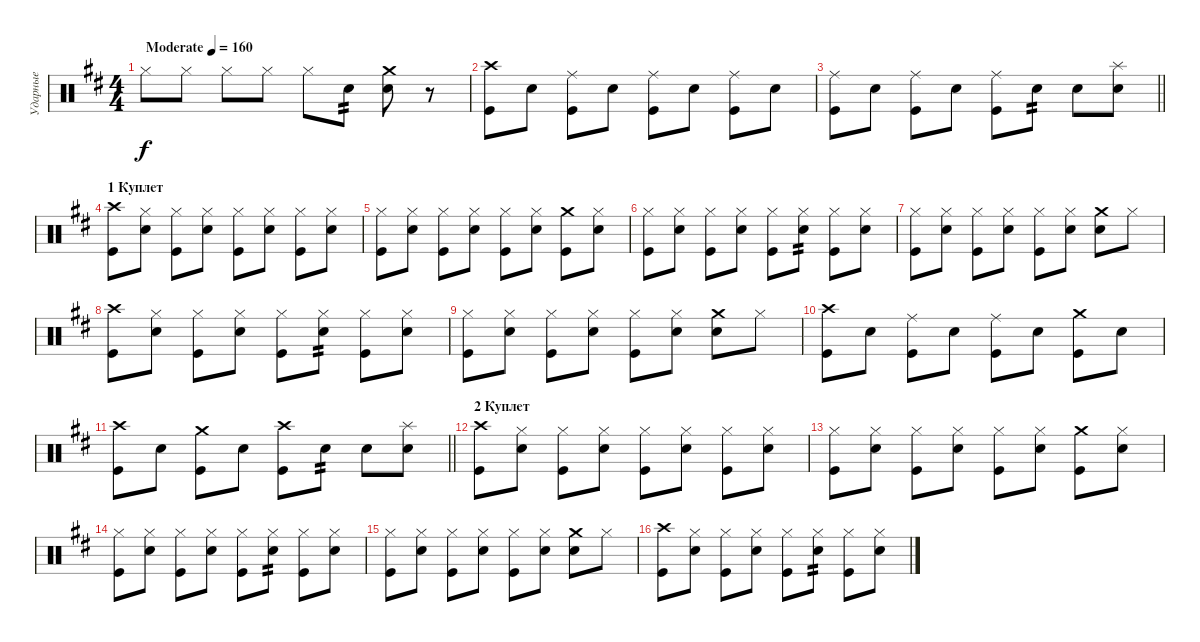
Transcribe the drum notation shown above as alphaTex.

\track ("Ударные" "Ударные") {instrument percussion}
\staff {score}
\articulation defaults
\ts (4 4)
\tempo (160 "Moderate")
\clef neutral
\ks d "Hi-Hat (closed)".8{dy f} "Hi-Hat (closed)".8 "Hi-Hat (closed)".8 "Hi-Hat (closed)".8 "Hi-Hat (closed)".8 "Electric Snare (hit)".8{tp 2}
("Crash medium (hit)" "Electric Snare (hit)").8 r.8 |
("Crash high (hit)" "Kick (hit)").8 "Electric Snare (hit)".8 ("Ride (middle)" "Kick (hit)").8 "Electric Snare (hit)".8 ("Ride (middle)" "Kick (hit)").8 "Electric Snare (hit)".8 ("Ride (middle)" "Kick (hit)").8 "Electric Snare (hit)".8 |
\barLineRight lightlight
("Ride (middle)" "Kick (hit)").8 "Electric Snare (hit)".8 ("Ride (middle)" "Kick (hit)").8 "Electric Snare (hit)".8 ("Ride (middle)" "Kick (hit)").8 "Electric Snare (hit)".8{tp 2} "Electric Snare (hit)".8 ("Splash (hit)" "Electric Snare (hit)").8 |
\section ("" "1 Куплет")
("Crash high (hit)" "Kick (hit)").8 ("Hi-Hat (closed)" "Electric Snare (hit)").8 ("Hi-Hat (closed)" "Kick (hit)").8 ("Hi-Hat (closed)" "Electric Snare (hit)").8 ("Hi-Hat (closed)" "Kick (hit)").8 ("Hi-Hat (closed)" "Electric Snare (hit)").8 ("Hi-Hat (closed)" "Kick (hit)").8 ("Hi-Hat (closed)" "Electric Snare (hit)").8 |
("Hi-Hat (closed)" "Kick (hit)").8 ("Hi-Hat (closed)" "Electric Snare (hit)").8 ("Hi-Hat (closed)" "Kick (hit)").8 ("Hi-Hat (closed)" "Electric Snare (hit)").8 ("Hi-Hat (closed)" "Kick (hit)").8 ("Hi-Hat (closed)" "Electric Snare (hit)").8 ("Crash medium (hit)" "Kick (hit)").8 ("Hi-Hat (closed)" "Electric Snare (hit)").8 |
("Hi-Hat (closed)" "Kick (hit)").8 ("Hi-Hat (closed)" "Electric Snare (hit)").8 ("Hi-Hat (closed)" "Kick (hit)").8 ("Hi-Hat (closed)" "Electric Snare (hit)").8 ("Hi-Hat (closed)" "Kick (hit)").8 ("Hi-Hat (closed)" "Electric Snare (hit)").8{tp 2} ("Hi-Hat (closed)" "Kick (hit)").8 ("Hi-Hat (closed)" "Electric Snare (hit)").8 |
("Hi-Hat (closed)" "Kick (hit)").8 ("Hi-Hat (closed)" "Electric Snare (hit)").8 ("Hi-Hat (closed)" "Kick (hit)").8 ("Hi-Hat (closed)" "Electric Snare (hit)").8 ("Hi-Hat (closed)" "Kick (hit)").8 ("Hi-Hat (closed)" "Electric Snare (hit)").8 ("Crash medium (hit)" "Electric Snare (hit)").8 "Hi-Hat (closed)".8 |
("Crash high (hit)" "Kick (hit)").8 ("Hi-Hat (closed)" "Electric Snare (hit)").8 ("Hi-Hat (closed)" "Kick (hit)").8 ("Hi-Hat (closed)" "Electric Snare (hit)").8 ("Hi-Hat (closed)" "Kick (hit)").8 ("Hi-Hat (closed)" "Electric Snare (hit)").8{tp 2} ("Hi-Hat (closed)" "Kick (hit)").8 ("Hi-Hat (closed)" "Electric Snare (hit)").8 |
("Hi-Hat (closed)" "Kick (hit)").8 ("Hi-Hat (closed)" "Electric Snare (hit)").8 ("Hi-Hat (closed)" "Kick (hit)").8 ("Hi-Hat (closed)" "Electric Snare (hit)").8 ("Hi-Hat (closed)" "Kick (hit)").8 ("Hi-Hat (closed)" "Electric Snare (hit)").8 ("Crash medium (hit)" "Electric Snare (hit)").8 "Hi-Hat (closed)".8 |
("Crash high (hit)" "Kick (hit)").8 "Electric Snare (hit)".8 ("Ride (middle)" "Kick (hit)").8 "Electric Snare (hit)".8 ("Ride (middle)" "Kick (hit)").8 "Electric Snare (hit)".8 ("Crash medium (hit)" "Kick (hit)").8 "Electric Snare (hit)".8 |
\barLineRight lightlight
("Crash high (hit)" "Kick (hit)").8 "Electric Snare (hit)".8 ("Crash medium (hit)" "Kick (hit)").8 "Electric Snare (hit)".8 ("Crash high (hit)" "Kick (hit)").8 "Electric Snare (hit)".8{tp 2} "Electric Snare (hit)".8 ("Splash (hit)" "Electric Snare (hit)").8 |
\section ("" "2 Куплет")
("Crash high (hit)" "Kick (hit)").8 ("Hi-Hat (closed)" "Electric Snare (hit)").8 ("Hi-Hat (closed)" "Kick (hit)").8 ("Hi-Hat (closed)" "Electric Snare (hit)").8 ("Hi-Hat (closed)" "Kick (hit)").8 ("Hi-Hat (closed)" "Electric Snare (hit)").8 ("Hi-Hat (closed)" "Kick (hit)").8 ("Hi-Hat (closed)" "Electric Snare (hit)").8 |
("Hi-Hat (closed)" "Kick (hit)").8 ("Hi-Hat (closed)" "Electric Snare (hit)").8 ("Hi-Hat (closed)" "Kick (hit)").8 ("Hi-Hat (closed)" "Electric Snare (hit)").8 ("Hi-Hat (closed)" "Kick (hit)").8 ("Hi-Hat (closed)" "Electric Snare (hit)").8 ("Crash medium (hit)" "Kick (hit)").8 ("Hi-Hat (closed)" "Electric Snare (hit)").8 |
("Hi-Hat (closed)" "Kick (hit)").8 ("Hi-Hat (closed)" "Electric Snare (hit)").8 ("Hi-Hat (closed)" "Kick (hit)").8 ("Hi-Hat (closed)" "Electric Snare (hit)").8 ("Hi-Hat (closed)" "Kick (hit)").8 ("Hi-Hat (closed)" "Electric Snare (hit)").8{tp 2} ("Hi-Hat (closed)" "Kick (hit)").8 ("Hi-Hat (closed)" "Electric Snare (hit)").8 |
("Hi-Hat (closed)" "Kick (hit)").8 ("Hi-Hat (closed)" "Electric Snare (hit)").8 ("Hi-Hat (closed)" "Kick (hit)").8 ("Hi-Hat (closed)" "Electric Snare (hit)").8 ("Hi-Hat (closed)" "Kick (hit)").8 ("Hi-Hat (closed)" "Electric Snare (hit)").8 ("Crash medium (hit)" "Electric Snare (hit)").8 "Hi-Hat (closed)".8 |
("Crash high (hit)" "Kick (hit)").8 ("Hi-Hat (closed)" "Electric Snare (hit)").8 ("Hi-Hat (closed)" "Kick (hit)").8 ("Hi-Hat (closed)" "Electric Snare (hit)").8 ("Hi-Hat (closed)" "Kick (hit)").8 ("Hi-Hat (closed)" "Electric Snare (hit)").8{tp 2} ("Hi-Hat (closed)" "Kick (hit)").8 ("Hi-Hat (closed)" "Electric Snare (hit)").8
